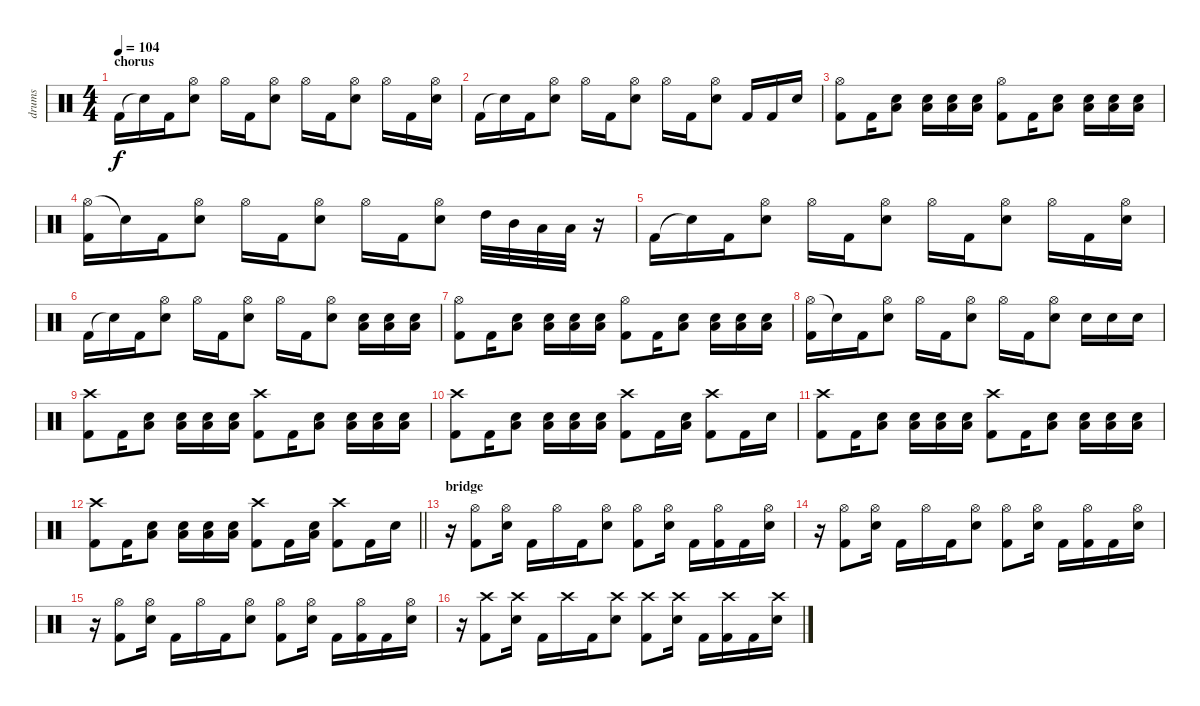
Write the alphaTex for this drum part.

\track ("drums" "drums") {instrument percussion}
\staff {score}
\articulation defaults
\ts (4 4)
\section ("" "chorus")
\tempo 104
\clef neutral
\ks c "Kick (hit) 2".16{dy f} "Snare (hit)"{t}.16 "Kick (hit) 2".16
("Hi-Hat (open)" "Electric Snare (hit)").8 "Hi-Hat (open)".16 "Kick (hit) 2".16 ("Hi-Hat (open)" "Electric Snare (hit)").8 "Hi-Hat (open)".16 "Kick (hit) 2".16 ("Hi-Hat (open)" "Electric Snare (hit)").8 "Hi-Hat (open)".16 "Kick (hit) 2".16 ("Hi-Hat (open)" "Electric Snare (hit)").16 |
"Kick (hit) 2".16 "Snare (hit)"{t}.16 "Kick (hit) 2".16 ("Hi-Hat (open)" "Electric Snare (hit)").8 "Hi-Hat (open)".16 "Kick (hit) 2".16 ("Hi-Hat (open)" "Electric Snare (hit)").8 "Hi-Hat (open)".16 "Kick (hit) 2".16 ("Hi-Hat (open)" "Electric Snare (hit)").8 "Kick (hit) 2".16 "Kick (hit) 2".16 "Electric Snare (hit)".16 |
("Hi-Hat (open)" "Kick (hit) 2").8 "Kick (hit) 2".16 ("Low Floor Tom (hit)" "Electric Snare (hit)").8 ("Low Floor Tom (hit)" "Electric Snare (hit)").16 ("Low Floor Tom (hit)" "Electric Snare (hit)").16 ("Low Floor Tom (hit)" "Electric Snare (hit)").16 ("Hi-Hat (open)" "Kick (hit) 2").8 "Kick (hit) 2".16 ("Low Floor Tom (hit)" "Electric Snare (hit)").8 ("Low Floor Tom (hit)" "Electric Snare (hit)").16 ("Low Floor Tom (hit)" "Electric Snare (hit)").16 ("Low Floor Tom (hit)" "Electric Snare (hit)").16 |
("Hi-Hat (open)" "Kick (hit) 2").16 "Snare (hit)"{t}.16 "Kick (hit) 2".16 ("Hi-Hat (open)" "Electric Snare (hit)").8 "Hi-Hat (open)".16 "Kick (hit) 2".16 ("Hi-Hat (open)" "Electric Snare (hit)").8 "Hi-Hat (open)".16 "Kick (hit) 2".16 ("Hi-Hat (open)" "Electric Snare (hit)").8 "High Tom (hit)".32 "Mid Tom (hit)".32 "Low Tom (hit)".32 "Low Floor Tom (hit)".32 r.16 |
"Kick (hit) 2".16 "Snare (hit)"{t}.16 "Kick (hit) 2".16 ("Hi-Hat (open)" "Electric Snare (hit)").8 "Hi-Hat (open)".16 "Kick (hit) 2".16 ("Hi-Hat (open)" "Electric Snare (hit)").8 "Hi-Hat (open)".16 "Kick (hit) 2".16 ("Hi-Hat (open)" "Electric Snare (hit)").8 "Hi-Hat (open)".16 "Kick (hit) 2".16 ("Hi-Hat (open)" "Electric Snare (hit)").16 |
"Kick (hit) 2".16 "Snare (hit)"{t}.16 "Kick (hit) 2".16 ("Hi-Hat (open)" "Electric Snare (hit)").8 "Hi-Hat (open)".16 "Kick (hit) 2".16 ("Hi-Hat (open)" "Electric Snare (hit)").8 "Hi-Hat (open)".16 "Kick (hit) 2".16 ("Hi-Hat (open)" "Electric Snare (hit)").8 ("Low Floor Tom (hit)" "Electric Snare (hit)").16 ("Low Floor Tom (hit)" "Electric Snare (hit)").16 ("Low Floor Tom (hit)" "Electric Snare (hit)").16 |
("Hi-Hat (open)" "Kick (hit) 2").8 "Kick (hit) 2".16 ("Low Floor Tom (hit)" "Electric Snare (hit)").8 ("Low Floor Tom (hit)" "Electric Snare (hit)").16 ("Low Floor Tom (hit)" "Electric Snare (hit)").16 ("Low Floor Tom (hit)" "Electric Snare (hit)").16 ("Hi-Hat (open)" "Kick (hit) 2").8 "Kick (hit) 2".16 ("Low Floor Tom (hit)" "Electric Snare (hit)").8 ("Low Floor Tom (hit)" "Electric Snare (hit)").16 ("Low Floor Tom (hit)" "Electric Snare (hit)").16 ("Low Floor Tom (hit)" "Electric Snare (hit)").16 |
("Hi-Hat (open)" "Kick (hit) 2").16 "Snare (hit)"{t}.16 "Kick (hit) 2".16 ("Hi-Hat (open)" "Electric Snare (hit)").8 "Hi-Hat (open)".16 "Kick (hit) 2".16 ("Hi-Hat (open)" "Electric Snare (hit)").8 "Hi-Hat (open)".16 "Kick (hit) 2".16 ("Hi-Hat (open)" "Electric Snare (hit)").8 "Electric Snare (hit)".16 "Electric Snare (hit)".16 "Electric Snare (hit)".16 |
("Crash high (hit)" "Kick (hit) 2").8 "Kick (hit) 2".16 ("Low Floor Tom (hit)" "Electric Snare (hit)").8 ("Low Floor Tom (hit)" "Electric Snare (hit)").16 ("Low Floor Tom (hit)" "Electric Snare (hit)").16 ("Low Floor Tom (hit)" "Electric Snare (hit)").16 ("Crash high (hit)" "Kick (hit) 2").8 "Kick (hit) 2".16 ("Low Floor Tom (hit)" "Electric Snare (hit)").8 ("Low Floor Tom (hit)" "Electric Snare (hit)").16 ("Low Floor Tom (hit)" "Electric Snare (hit)").16 ("Low Floor Tom (hit)" "Electric Snare (hit)").16 |
("Crash high (hit)" "Kick (hit) 2").8 "Kick (hit) 2".16 ("Low Floor Tom (hit)" "Electric Snare (hit)").8 ("Low Floor Tom (hit)" "Electric Snare (hit)").16 ("Low Floor Tom (hit)" "Electric Snare (hit)").16 ("Low Floor Tom (hit)" "Electric Snare (hit)").16 ("Crash high (hit)" "Kick (hit) 2").8 "Kick (hit) 2".16 ("Low Floor Tom (hit)" "Electric Snare (hit)").16 ("Crash high (hit)" "Kick (hit) 2").8 "Kick (hit) 2".16 "Electric Snare (hit)".16 |
("Crash high (hit)" "Kick (hit) 2").8 "Kick (hit) 2".16 ("Low Floor Tom (hit)" "Electric Snare (hit)").8 ("Low Floor Tom (hit)" "Electric Snare (hit)").16 ("Low Floor Tom (hit)" "Electric Snare (hit)").16 ("Low Floor Tom (hit)" "Electric Snare (hit)").16 ("Crash high (hit)" "Kick (hit) 2").8 "Kick (hit) 2".16 ("Low Floor Tom (hit)" "Electric Snare (hit)").8 ("Low Floor Tom (hit)" "Electric Snare (hit)").16 ("Low Floor Tom (hit)" "Electric Snare (hit)").16 ("Low Floor Tom (hit)" "Electric Snare (hit)").16 |
\barLineRight lightlight
("Crash high (hit)" "Kick (hit) 2").8 "Kick (hit) 2".16 ("Low Floor Tom (hit)" "Electric Snare (hit)").8 ("Low Floor Tom (hit)" "Electric Snare (hit)").16 ("Low Floor Tom (hit)" "Electric Snare (hit)").16 ("Low Floor Tom (hit)" "Electric Snare (hit)").16 ("Crash high (hit)" "Kick (hit) 2").8 "Kick (hit) 2".16 ("Low Floor Tom (hit)" "Electric Snare (hit)").16 ("Crash high (hit)" "Kick (hit) 2").8 "Kick (hit) 2".16 "Electric Snare (hit)".16 |
\section ("" "bridge")
r.16 ("Hi-Hat (open)" "Kick (hit) 2").8 ("Hi-Hat (open)" "Electric Snare (hit)").16 "Kick (hit) 2".16 "Hi-Hat (open)".16 "Kick (hit) 2".16 ("Hi-Hat (open)" "Electric Snare (hit)").8 ("Hi-Hat (open)" "Kick (hit) 2").8 ("Hi-Hat (open)" "Electric Snare (hit)").16 "Kick (hit) 2".16 ("Hi-Hat (open)" "Kick (hit) 2").16 "Kick (hit) 2".16 ("Hi-Hat (open)" "Electric Snare (hit)").16 |
r.16 ("Hi-Hat (open)" "Kick (hit) 2").8 ("Hi-Hat (open)" "Electric Snare (hit)").16 "Kick (hit) 2".16 "Hi-Hat (open)".16 "Kick (hit) 2".16 ("Hi-Hat (open)" "Electric Snare (hit)").8 ("Hi-Hat (open)" "Kick (hit) 2").8 ("Hi-Hat (open)" "Electric Snare (hit)").16 "Kick (hit) 2".16 ("Hi-Hat (open)" "Kick (hit) 2").16 "Kick (hit) 2".16 ("Hi-Hat (open)" "Electric Snare (hit)").16 |
r.16 ("Hi-Hat (open)" "Kick (hit) 2").8 ("Hi-Hat (open)" "Electric Snare (hit)").16 "Kick (hit) 2".16 "Hi-Hat (open)".16 "Kick (hit) 2".16 ("Hi-Hat (open)" "Electric Snare (hit)").8 ("Hi-Hat (open)" "Kick (hit) 2").8 ("Hi-Hat (open)" "Electric Snare (hit)").16 "Kick (hit) 2".16 ("Hi-Hat (open)" "Kick (hit) 2").16 "Kick (hit) 2".16 ("Hi-Hat (open)" "Electric Snare (hit)").16 |
r.16 ("Crash high (hit)" "Kick (hit) 2").8 ("Crash high (hit)" "Electric Snare (hit)").16 "Kick (hit) 2".16 "Crash high (hit)".16 "Kick (hit) 2".16 ("Crash high (hit)" "Electric Snare (hit)").8 ("Crash high (hit)" "Kick (hit) 2").8 ("Crash high (hit)" "Electric Snare (hit)").16 "Kick (hit) 2".16 ("Crash high (hit)" "Kick (hit) 2").16 "Kick (hit) 2".16 ("Crash high (hit)" "Electric Snare (hit)").16
